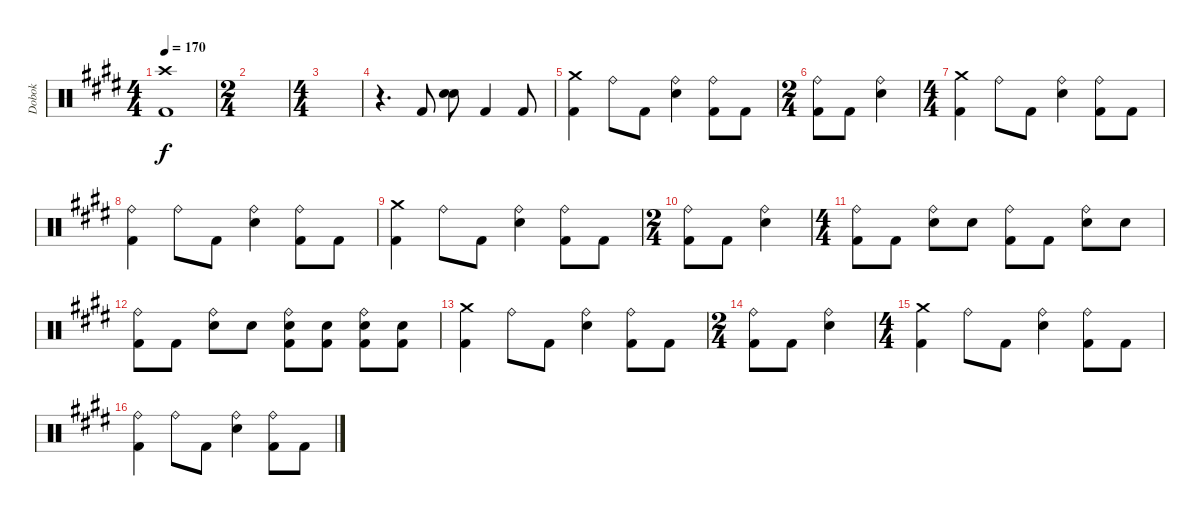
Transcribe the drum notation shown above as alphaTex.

\track ("Dobok" "Dobok") {instrument percussion}
\staff {score}
\articulation defaults
\ts (4 4)
\tempo 170
\clef neutral
\ks c#minor
("Crash high (hit)" "Kick (hit) 2").1{dy f} |
\ts (2 4)
|
\ts (4 4)
|
r.4{d} "Kick (hit) 2".8 ("Snare (hit) 2" "Snare (hit) 2").8 "Kick (hit) 2".4 "Kick (hit) 2".8 |
("Crash medium (hit)" "Kick (hit) 2").4 "Ride (bell)".8 "Kick (hit) 2".8 ("Ride (bell)" "Snare (hit) 2").4 ("Ride (bell)" "Kick (hit) 2").8 "Kick (hit) 2".8 |
\ts (2 4)
("Ride (bell)" "Kick (hit) 2").8 "Kick (hit) 2".8 ("Ride (bell)" "Snare (hit) 2").4 |
\ts (4 4)
("Crash medium (hit)" "Kick (hit) 2").4 "Ride (bell)".8 "Kick (hit) 2".8 ("Ride (bell)" "Snare (hit) 2").4 ("Ride (bell)" "Kick (hit) 2").8 "Kick (hit) 2".8 |
("Ride (bell)" "Kick (hit) 2").4 "Ride (bell)".8 "Kick (hit) 2".8 ("Ride (bell)" "Snare (hit) 2").4 ("Ride (bell)" "Kick (hit) 2").8 "Kick (hit) 2".8 |
("Crash medium (hit)" "Kick (hit) 2").4 "Ride (bell)".8 "Kick (hit) 2".8 ("Ride (bell)" "Snare (hit) 2").4 ("Ride (bell)" "Kick (hit) 2").8 "Kick (hit) 2".8 |
\ts (2 4)
("Ride (bell)" "Kick (hit) 2").8 "Kick (hit) 2".8 ("Ride (bell)" "Snare (hit) 2").4 |
\ts (4 4)
("Ride (bell)" "Kick (hit) 2").8 "Kick (hit) 2".8 ("Ride (bell)" "Snare (hit) 2").8 "Snare (hit) 2".8 ("Ride (bell)" "Kick (hit) 2").8 "Kick (hit) 2".8 ("Ride (bell)" "Snare (hit) 2").8 "Snare (hit) 2".8 |
("Ride (bell)" "Kick (hit) 2").8 "Kick (hit) 2".8 ("Ride (bell)" "Snare (hit) 2").8 "Snare (hit) 2".8 ("Ride (bell)" "Snare (hit) 2" "Kick (hit) 2").8 ("Snare (hit) 2" "Kick (hit) 2").8 ("Ride (bell)" "Snare (hit) 2" "Kick (hit) 2").8 ("Snare (hit) 2" "Kick (hit) 2").8 |
("Crash medium (hit)" "Kick (hit) 2").4 "Ride (bell)".8 "Kick (hit) 2".8 ("Ride (bell)" "Snare (hit) 2").4 ("Ride (bell)" "Kick (hit) 2").8 "Kick (hit) 2".8 |
\ts (2 4)
("Ride (bell)" "Kick (hit) 2").8 "Kick (hit) 2".8 ("Ride (bell)" "Snare (hit) 2").4 |
\ts (4 4)
("Crash medium (hit)" "Kick (hit) 2").4 "Ride (bell)".8 "Kick (hit) 2".8 ("Ride (bell)" "Snare (hit) 2").4 ("Ride (bell)" "Kick (hit) 2").8 "Kick (hit) 2".8 |
("Ride (bell)" "Kick (hit) 2").4 "Ride (bell)".8 "Kick (hit) 2".8 ("Ride (bell)" "Snare (hit) 2").4 ("Ride (bell)" "Kick (hit) 2").8 "Kick (hit) 2".8
